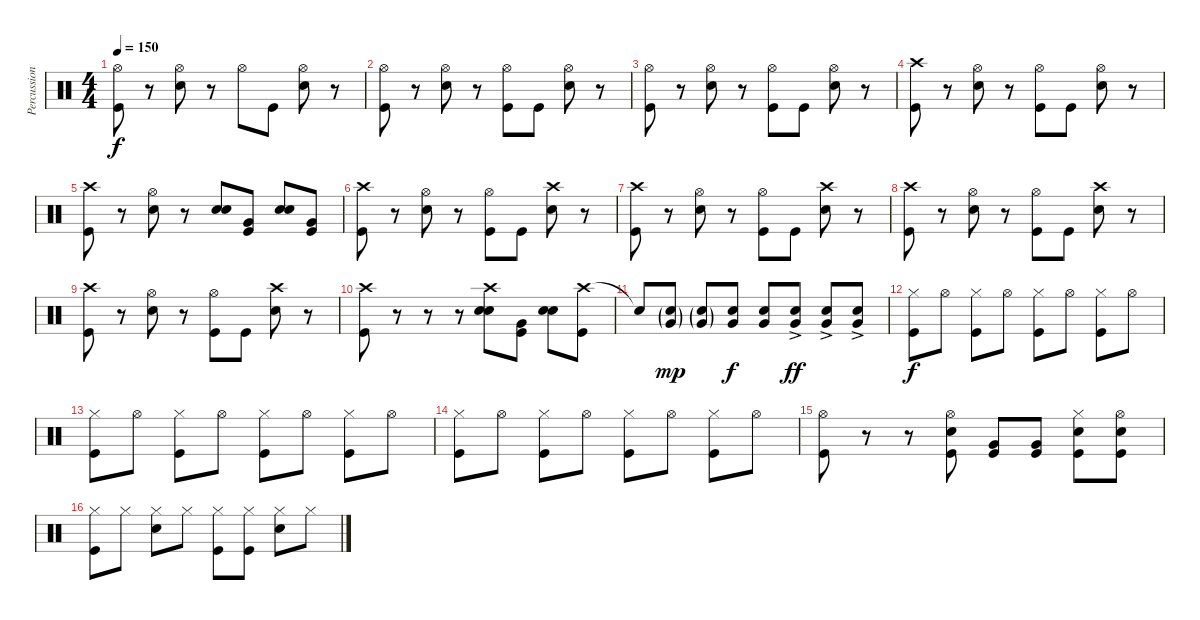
\track ("Percussion" "Percussion") {instrument percussion}
\staff {score}
\articulation defaults
\ts (4 4)
\tempo 150
\clef neutral
\ks c
("Hi-Hat (open)" "Kick (hit)").8{dy f} r.8 ("Hi-Hat (open)" "Snare (hit) 2").8 r.8 "Hi-Hat (open)".8 "Kick (hit)".8 ("Hi-Hat (open)" "Snare (hit) 2").8 r.8 |
("Hi-Hat (open)" "Kick (hit)").8 r.8 ("Hi-Hat (open)" "Snare (hit) 2").8 r.8 ("Hi-Hat (open)" "Kick (hit)").8 "Kick (hit)".8 ("Hi-Hat (open)" "Snare (hit) 2").8 r.8 |
("Hi-Hat (open)" "Kick (hit)").8 r.8 ("Hi-Hat (open)" "Snare (hit) 2").8 r.8 ("Hi-Hat (open)" "Kick (hit)").8 "Kick (hit)".8 ("Hi-Hat (open)" "Snare (hit) 2").8 r.8 |
("Crash high (hit)" "Kick (hit)").8 r.8 ("Hi-Hat (open)" "Snare (hit) 2").8 r.8 ("Hi-Hat (open)" "Kick (hit)").8 "Kick (hit)".8 ("Hi-Hat (open)" "Snare (hit) 2").8 r.8 |
("Crash high (hit)" "Kick (hit)").8 r.8 ("Hi-Hat (open)" "Snare (hit) 2").8 r.8 ("Snare (hit) 2" "Snare (hit) 2").8 ("Very Low Tom (hit)" "Kick (hit)").8 ("Snare (hit) 2" "Snare (hit) 2").8 ("Very Low Tom (hit)" "Kick (hit)").8 |
("Crash high (hit)" "Kick (hit)").8 r.8 ("Hi-Hat (open)" "Snare (hit) 2").8 r.8 ("Hi-Hat (open)" "Kick (hit)").8 "Kick (hit)".8 ("Crash high (hit)" "Snare (hit) 2").8 r.8 |
("Crash high (hit)" "Kick (hit)").8 r.8 ("Hi-Hat (open)" "Snare (hit) 2").8 r.8 ("Hi-Hat (open)" "Kick (hit)").8 "Kick (hit)".8 ("Crash high (hit)" "Snare (hit) 2").8 r.8 |
("Crash high (hit)" "Kick (hit)").8 r.8 ("Hi-Hat (open)" "Snare (hit) 2").8 r.8 ("Hi-Hat (open)" "Kick (hit)").8 "Kick (hit)".8 ("Crash high (hit)" "Snare (hit) 2").8 r.8 |
("Crash high (hit)" "Kick (hit)").8 r.8 ("Hi-Hat (open)" "Snare (hit) 2").8 r.8 ("Hi-Hat (open)" "Kick (hit)").8 "Kick (hit)".8 ("Crash high (hit)" "Snare (hit) 2").8 r.8 |
("Crash high (hit)" "Kick (hit)").8 r.8 r.8 r.8 ("Crash high (hit)" "Snare (hit) 2" "Snare (hit) 2").8 ("Very Low Tom (hit)" "Kick (hit)").8 ("Snare (hit) 2" "Snare (hit) 2").8 ("Crash high (hit)" "Kick (hit)").8 |
"Snare (hit)"{t}.8 ("Snare (hit) 2"{g} "Very Low Tom (hit)"{g}).8{dy mp} ("Snare (hit) 2"{g} "Very Low Tom (hit)"{g}).8 ("Snare (hit) 2" "Very Low Tom (hit)").8{dy f} ("Snare (hit) 2" "Very Low Tom (hit)").8 ("Snare (hit) 2"{ac} "Very Low Tom (hit)").8{dy ff} ("Snare (hit) 2"{ac} "Very Low Tom (hit)").8 ("Snare (hit) 2"{ac} "Very Low Tom (hit)").8 |
("Hi-Hat (closed)" "Kick (hit)").8{dy f} "Hi-Hat (open)".8 ("Hi-Hat (closed)" "Kick (hit)").8 "Hi-Hat (open)".8 ("Hi-Hat (closed)" "Kick (hit)").8 "Hi-Hat (open)".8 ("Hi-Hat (closed)" "Kick (hit)").8 "Hi-Hat (open)".8 |
("Hi-Hat (closed)" "Kick (hit)").8 "Hi-Hat (open)".8 ("Hi-Hat (closed)" "Kick (hit)").8 "Hi-Hat (open)".8 ("Hi-Hat (closed)" "Kick (hit)").8 "Hi-Hat (open)".8 ("Hi-Hat (closed)" "Kick (hit)").8 "Hi-Hat (open)".8 |
("Hi-Hat (closed)" "Kick (hit)").8 "Hi-Hat (open)".8 ("Hi-Hat (closed)" "Kick (hit)").8 "Hi-Hat (open)".8 ("Hi-Hat (closed)" "Kick (hit)").8 "Hi-Hat (open)".8 ("Hi-Hat (closed)" "Kick (hit)").8 "Hi-Hat (open)".8 |
("Hi-Hat (open)" "Kick (hit)").8 r.8 r.8 ("Hi-Hat (open)" "Snare (hit) 2" "Kick (hit)").8 ("Very Low Tom (hit)" "Kick (hit)").8 ("Very Low Tom (hit)" "Kick (hit)").8 ("Hi-Hat (closed)" "Snare (hit) 2" "Kick (hit)").8 ("Hi-Hat (open)" "Snare (hit) 2" "Kick (hit)").8 |
("Hi-Hat (closed)" "Kick (hit)").8 "Hi-Hat (closed)".8 ("Hi-Hat (closed)" "Snare (hit) 2").8 "Hi-Hat (closed)".8 ("Hi-Hat (closed)" "Kick (hit)").8 ("Hi-Hat (closed)" "Kick (hit)").8 ("Hi-Hat (closed)" "Snare (hit) 2").8 "Hi-Hat (closed)".8
